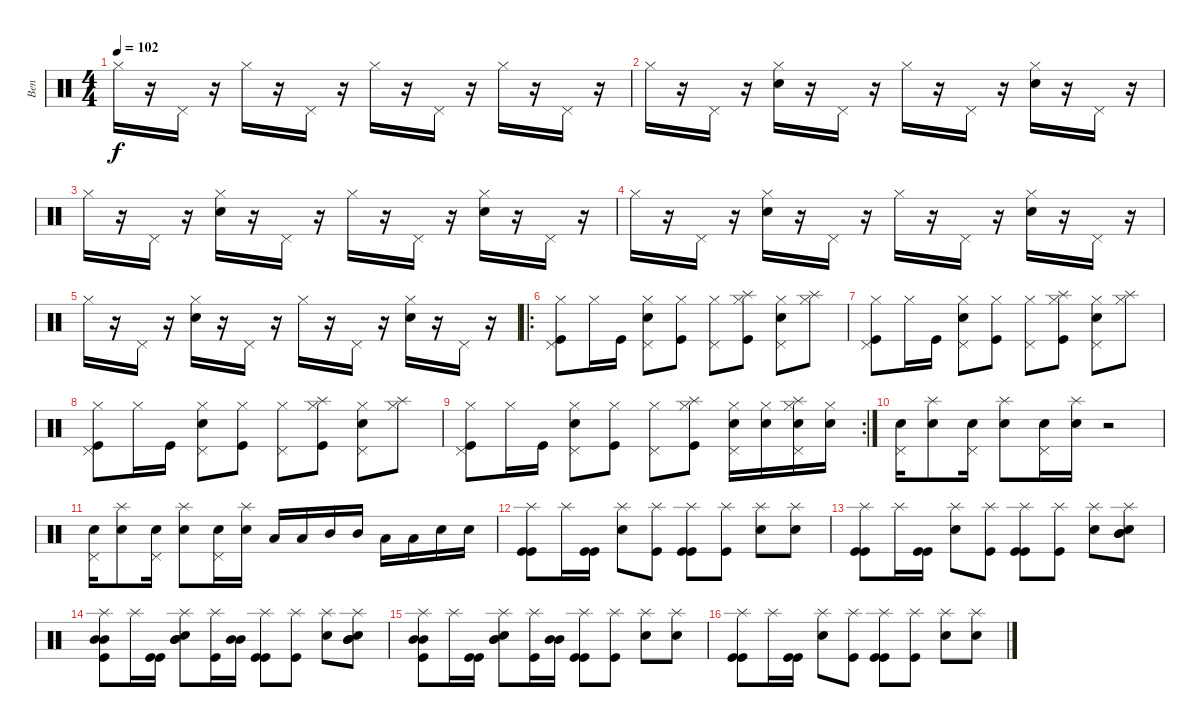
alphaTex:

\track ("Ben" "Ben") {instrument percussion}
\staff {score}
\articulation defaults
\ts (4 4)
\tempo 102
\clef neutral
\ks c "Hi-Hat (closed)".16{dy f}
r.16 "Pedal Hi-Hat (hit)".16 r.16 "Hi-Hat (closed)".16 r.16 "Pedal Hi-Hat (hit)".16 r.16 "Hi-Hat (closed)".16 r.16 "Pedal Hi-Hat (hit)".16 r.16 "Hi-Hat (closed)".16 r.16 "Pedal Hi-Hat (hit)".16 r.16 |
"Hi-Hat (closed)".16 r.16 "Pedal Hi-Hat (hit)".16 r.16 ("Hi-Hat (closed)" "Electric Snare (hit)").16 r.16 "Pedal Hi-Hat (hit)".16 r.16 "Hi-Hat (closed)".16 r.16 "Pedal Hi-Hat (hit)".16 r.16 ("Hi-Hat (closed)" "Electric Snare (hit)").16 r.16 "Pedal Hi-Hat (hit)".16 r.16 |
"Hi-Hat (closed)".16 r.16 "Pedal Hi-Hat (hit)".16 r.16 ("Hi-Hat (closed)" "Electric Snare (hit)").16 r.16 "Pedal Hi-Hat (hit)".16 r.16 "Hi-Hat (closed)".16 r.16 "Pedal Hi-Hat (hit)".16 r.16 ("Hi-Hat (closed)" "Electric Snare (hit)").16 r.16 "Pedal Hi-Hat (hit)".16 r.16 |
"Hi-Hat (closed)".16 r.16 "Pedal Hi-Hat (hit)".16 r.16 ("Hi-Hat (closed)" "Electric Snare (hit)").16 r.16 "Pedal Hi-Hat (hit)".16 r.16 "Hi-Hat (closed)".16 r.16 "Pedal Hi-Hat (hit)".16 r.16 ("Hi-Hat (closed)" "Electric Snare (hit)").16 r.16 "Pedal Hi-Hat (hit)".16 r.16 |
"Hi-Hat (closed)".16 r.16 "Pedal Hi-Hat (hit)".16 r.16 ("Hi-Hat (closed)" "Electric Snare (hit)").16 r.16 "Pedal Hi-Hat (hit)".16 r.16 "Hi-Hat (closed)".16 r.16 "Pedal Hi-Hat (hit)".16 r.16 ("Hi-Hat (closed)" "Electric Snare (hit)").16 r.16 "Pedal Hi-Hat (hit)".16 r.16 |
\ro
("Hi-Hat (closed)" "Pedal Hi-Hat (hit)" "Kick (hit)").8 "Hi-Hat (closed)".16 "Kick (hit)".16 ("Hi-Hat (closed)" "Pedal Hi-Hat (hit)" "Electric Snare (hit)").8 ("Hi-Hat (closed)" "Kick (hit)").8 ("Hi-Hat (closed)" "Pedal Hi-Hat (hit)").8 ("Splash (hit)" "Hi-Hat (closed)" "Kick (hit)").8 ("Hi-Hat (closed)" "Pedal Hi-Hat (hit)" "Electric Snare (hit)").8 ("Splash (hit)" "Hi-Hat (closed)").8 |
("Hi-Hat (closed)" "Pedal Hi-Hat (hit)" "Kick (hit)").8 "Hi-Hat (closed)".16 "Kick (hit)".16 ("Hi-Hat (closed)" "Pedal Hi-Hat (hit)" "Electric Snare (hit)").8 ("Hi-Hat (closed)" "Kick (hit)").8 ("Hi-Hat (closed)" "Pedal Hi-Hat (hit)").8 ("Splash (hit)" "Hi-Hat (closed)" "Kick (hit)").8 ("Hi-Hat (closed)" "Pedal Hi-Hat (hit)" "Electric Snare (hit)").8 ("Splash (hit)" "Hi-Hat (closed)").8 |
("Hi-Hat (closed)" "Pedal Hi-Hat (hit)" "Kick (hit)").8 "Hi-Hat (closed)".16 "Kick (hit)".16 ("Hi-Hat (closed)" "Pedal Hi-Hat (hit)" "Electric Snare (hit)").8 ("Hi-Hat (closed)" "Kick (hit)").8 ("Hi-Hat (closed)" "Pedal Hi-Hat (hit)").8 ("Splash (hit)" "Hi-Hat (closed)" "Kick (hit)").8 ("Hi-Hat (closed)" "Pedal Hi-Hat (hit)" "Electric Snare (hit)").8 ("Splash (hit)" "Hi-Hat (closed)").8 |
\rc 2
("Hi-Hat (closed)" "Pedal Hi-Hat (hit)" "Kick (hit)").8 "Hi-Hat (closed)".16 "Kick (hit)".16 ("Hi-Hat (closed)" "Pedal Hi-Hat (hit)" "Electric Snare (hit)").8 ("Hi-Hat (closed)" "Kick (hit)").8 ("Hi-Hat (closed)" "Pedal Hi-Hat (hit)").8 ("Splash (hit)" "Hi-Hat (closed)" "Kick (hit)").8 ("Hi-Hat (closed)" "Pedal Hi-Hat (hit)" "Electric Snare (hit)").16 ("Hi-Hat (closed)" "Electric Snare (hit)").16 ("Splash (hit)" "Hi-Hat (closed)" "Pedal Hi-Hat (hit)" "Electric Snare (hit)").16 ("Hi-Hat (closed)" "Electric Snare (hit)").16 |
("Pedal Hi-Hat (hit)" "Electric Snare (hit)").16 ("Splash (hit)" "Snare (hit) 2").8 ("Pedal Hi-Hat (hit)" "Electric Snare (hit)").16 ("Splash (hit)" "Snare (hit) 2").8 ("Pedal Hi-Hat (hit)" "Electric Snare (hit)").16 ("Splash (hit)" "Snare (hit) 2").16 r.2 |
("Pedal Hi-Hat (hit)" "Electric Snare (hit)").16 ("Splash (hit)" "Snare (hit) 2").8 ("Pedal Hi-Hat (hit)" "Electric Snare (hit)").16 ("Splash (hit)" "Snare (hit) 2").8 ("Pedal Hi-Hat (hit)" "Electric Snare (hit)").16 ("Splash (hit)" "Snare (hit) 2").16 "Low Floor Tom (hit)".16 "Low Floor Tom (hit)".16 "Mid Tom (hit)".16 "Mid Tom (hit)".16 "Low Tom (hit)".16 "Low Tom (hit)".16 "Electric Snare (hit)".16 "Electric Snare (hit)".16 |
("Splash (hit)" "Kick (hit)" "Kick (hit)").8 "Splash (hit)".16 ("Kick (hit)" "Kick (hit)").16 ("Splash (hit)" "Electric Snare (hit)").8 ("Splash (hit)" "Kick (hit)").8 ("Splash (hit)" "Kick (hit)" "Kick (hit)").8 ("Splash (hit)" "Kick (hit)").8 ("Splash (hit)" "Electric Snare (hit)").8 ("Splash (hit)" "Electric Snare (hit)").8 |
("Splash (hit)" "Kick (hit)" "Kick (hit)").8 "Splash (hit)".16 ("Kick (hit)" "Kick (hit)").16 ("Splash (hit)" "Electric Snare (hit)").8 ("Splash (hit)" "Kick (hit)").8 ("Splash (hit)" "Kick (hit)" "Kick (hit)").8 ("Splash (hit)" "Kick (hit)").8 ("Splash (hit)" "Electric Snare (hit)").8 ("Splash (hit)" "Mid Tom (hit)" "Mid Tom (hit)" "Electric Snare (hit)").8 |
("Splash (hit)" "Mid Tom (hit)" "Mid Tom (hit)" "Kick (hit)").8 "Splash (hit)".16 ("Kick (hit)" "Kick (hit)").16 ("Splash (hit)" "Mid Tom (hit)" "Mid Tom (hit)" "Electric Snare (hit)").8 ("Splash (hit)" "Kick (hit)").16 ("Mid Tom (hit)" "Mid Tom (hit)").16 ("Splash (hit)" "Kick (hit)" "Kick (hit)").8 ("Splash (hit)" "Kick (hit)").8 ("Splash (hit)" "Electric Snare (hit)").8 ("Splash (hit)" "Mid Tom (hit)" "Mid Tom (hit)" "Electric Snare (hit)").8 |
("Splash (hit)" "Mid Tom (hit)" "Mid Tom (hit)" "Kick (hit)").8 "Splash (hit)".16 ("Kick (hit)" "Kick (hit)").16 ("Splash (hit)" "Mid Tom (hit)" "Mid Tom (hit)" "Electric Snare (hit)").8 ("Splash (hit)" "Kick (hit)").16 ("Mid Tom (hit)" "Mid Tom (hit)").16 ("Splash (hit)" "Kick (hit)" "Kick (hit)").8 ("Splash (hit)" "Kick (hit)").8 ("Splash (hit)" "Electric Snare (hit)").8 ("Splash (hit)" "Electric Snare (hit)").8 |
("Splash (hit)" "Kick (hit)" "Kick (hit)").8 "Splash (hit)".16 ("Kick (hit)" "Kick (hit)").16 ("Splash (hit)" "Electric Snare (hit)").8 ("Splash (hit)" "Kick (hit)").8 ("Splash (hit)" "Kick (hit)" "Kick (hit)").8 ("Splash (hit)" "Kick (hit)").8 ("Splash (hit)" "Electric Snare (hit)").8 ("Splash (hit)" "Electric Snare (hit)").8
